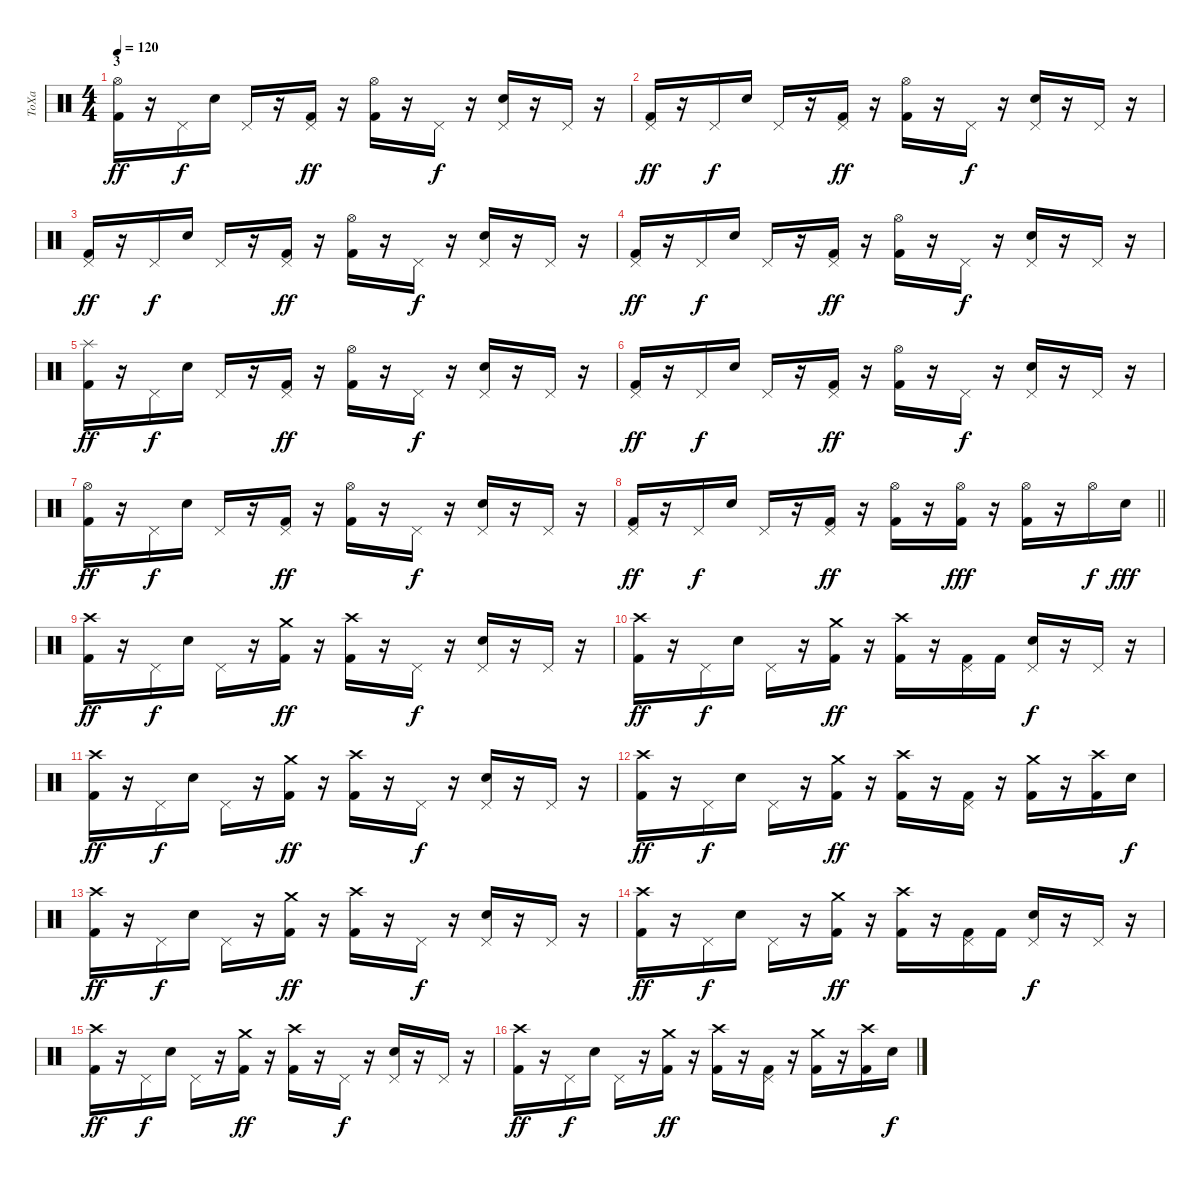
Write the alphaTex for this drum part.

\track ("ТоХа" "ТоХа") {instrument percussion}
\staff {score}
\articulation defaults
\ts (4 4)
\section ("" "3")
\tempo 120
\clef neutral
\ks c
("Hi-Hat (open)" "Kick (hit) 2").16{dy ff} r.16 "Pedal Hi-Hat (hit)".16{dy f} "Electric Snare (hit)".16 "Pedal Hi-Hat (hit)".16 r.16 ("Pedal Hi-Hat (hit)" "Kick (hit) 2").16{dy ff} r.16 ("Hi-Hat (open)" "Kick (hit) 2").16 r.16 "Pedal Hi-Hat (hit)".16{dy f} r.16 ("Pedal Hi-Hat (hit)" "Electric Snare (hit)").16 r.16 "Pedal Hi-Hat (hit)".16 r.16 |
("Pedal Hi-Hat (hit)" "Kick (hit) 2").16{dy ff} r.16 "Pedal Hi-Hat (hit)".16{dy f} "Electric Snare (hit)".16 "Pedal Hi-Hat (hit)".16 r.16 ("Pedal Hi-Hat (hit)" "Kick (hit) 2").16{dy ff} r.16 ("Hi-Hat (open)" "Kick (hit) 2").16 r.16 "Pedal Hi-Hat (hit)".16{dy f} r.16 ("Pedal Hi-Hat (hit)" "Electric Snare (hit)").16 r.16 "Pedal Hi-Hat (hit)".16 r.16 |
("Pedal Hi-Hat (hit)" "Kick (hit) 2").16{dy ff} r.16 "Pedal Hi-Hat (hit)".16{dy f} "Electric Snare (hit)".16 "Pedal Hi-Hat (hit)".16 r.16 ("Pedal Hi-Hat (hit)" "Kick (hit) 2").16{dy ff} r.16 ("Hi-Hat (open)" "Kick (hit) 2").16 r.16 "Pedal Hi-Hat (hit)".16{dy f} r.16 ("Pedal Hi-Hat (hit)" "Electric Snare (hit)").16 r.16 "Pedal Hi-Hat (hit)".16 r.16 |
("Pedal Hi-Hat (hit)" "Kick (hit) 2").16{dy ff} r.16 "Pedal Hi-Hat (hit)".16{dy f} "Electric Snare (hit)".16 "Pedal Hi-Hat (hit)".16 r.16 ("Pedal Hi-Hat (hit)" "Kick (hit) 2").16{dy ff} r.16 ("Hi-Hat (open)" "Kick (hit) 2").16 r.16 "Pedal Hi-Hat (hit)".16{dy f} r.16 ("Pedal Hi-Hat (hit)" "Electric Snare (hit)").16 r.16 "Pedal Hi-Hat (hit)".16 r.16 |
("Splash (hit)" "Kick (hit) 2").16{dy ff} r.16 "Pedal Hi-Hat (hit)".16{dy f} "Electric Snare (hit)".16 "Pedal Hi-Hat (hit)".16 r.16 ("Pedal Hi-Hat (hit)" "Kick (hit) 2").16{dy ff} r.16 ("Hi-Hat (open)" "Kick (hit) 2").16 r.16 "Pedal Hi-Hat (hit)".16{dy f} r.16 ("Pedal Hi-Hat (hit)" "Electric Snare (hit)").16 r.16 "Pedal Hi-Hat (hit)".16 r.16 |
("Pedal Hi-Hat (hit)" "Kick (hit) 2").16{dy ff} r.16 "Pedal Hi-Hat (hit)".16{dy f} "Electric Snare (hit)".16 "Pedal Hi-Hat (hit)".16 r.16 ("Pedal Hi-Hat (hit)" "Kick (hit) 2").16{dy ff} r.16 ("Hi-Hat (open)" "Kick (hit) 2").16 r.16 "Pedal Hi-Hat (hit)".16{dy f} r.16 ("Pedal Hi-Hat (hit)" "Electric Snare (hit)").16 r.16 "Pedal Hi-Hat (hit)".16 r.16 |
("Hi-Hat (open)" "Kick (hit) 2").16{dy ff} r.16 "Pedal Hi-Hat (hit)".16{dy f} "Electric Snare (hit)".16 "Pedal Hi-Hat (hit)".16 r.16 ("Pedal Hi-Hat (hit)" "Kick (hit) 2").16{dy ff} r.16 ("Hi-Hat (open)" "Kick (hit) 2").16 r.16 "Pedal Hi-Hat (hit)".16{dy f} r.16 ("Pedal Hi-Hat (hit)" "Electric Snare (hit)").16 r.16 "Pedal Hi-Hat (hit)".16 r.16 |
\barLineRight lightlight
("Pedal Hi-Hat (hit)" "Kick (hit) 2").16{dy ff} r.16 "Pedal Hi-Hat (hit)".16{dy f} "Electric Snare (hit)".16 "Pedal Hi-Hat (hit)".16 r.16 ("Pedal Hi-Hat (hit)" "Kick (hit) 2").16{dy ff} r.16 ("Hi-Hat (open)" "Kick (hit) 2").16 r.16 ("Hi-Hat (open)" "Kick (hit) 2").16{dy fff} r.16 ("Hi-Hat (open)" "Kick (hit) 2").16 r.16 "Hi-Hat (open)".16{dy f} "Electric Snare (hit)".16{dy fff} |
("Crash high (hit)" "Kick (hit) 2").16{dy ff} r.16 "Pedal Hi-Hat (hit)".16{dy f} "Electric Snare (hit)".16 "Pedal Hi-Hat (hit)".16 r.16 ("Crash medium (hit)" "Kick (hit) 2").16{dy ff} r.16 ("Crash high (hit)" "Kick (hit) 2").16 r.16 "Pedal Hi-Hat (hit)".16{dy f} r.16 ("Pedal Hi-Hat (hit)" "Electric Snare (hit)").16 r.16 "Pedal Hi-Hat (hit)".16 r.16 |
("Crash high (hit)" "Kick (hit) 2").16{dy ff} r.16 "Pedal Hi-Hat (hit)".16{dy f} "Electric Snare (hit)".16 "Pedal Hi-Hat (hit)".16 r.16 ("Crash medium (hit)" "Kick (hit) 2").16{dy ff} r.16 ("Crash high (hit)" "Kick (hit) 2").16 r.16 ("Pedal Hi-Hat (hit)" "Kick (hit) 2").16 "Kick (hit) 2".16 ("Pedal Hi-Hat (hit)" "Electric Snare (hit)").16{dy f} r.16 "Pedal Hi-Hat (hit)".16 r.16 |
("Crash high (hit)" "Kick (hit) 2").16{dy ff} r.16 "Pedal Hi-Hat (hit)".16{dy f} "Electric Snare (hit)".16 "Pedal Hi-Hat (hit)".16 r.16 ("Crash medium (hit)" "Kick (hit) 2").16{dy ff} r.16 ("Crash high (hit)" "Kick (hit) 2").16 r.16 "Pedal Hi-Hat (hit)".16{dy f} r.16 ("Pedal Hi-Hat (hit)" "Electric Snare (hit)").16 r.16 "Pedal Hi-Hat (hit)".16 r.16 |
("Crash high (hit)" "Kick (hit) 2").16{dy ff} r.16 "Pedal Hi-Hat (hit)".16{dy f} "Electric Snare (hit)".16 "Pedal Hi-Hat (hit)".16 r.16 ("Crash medium (hit)" "Kick (hit) 2").16{dy ff} r.16 ("Crash high (hit)" "Kick (hit) 2").16 r.16 ("Pedal Hi-Hat (hit)" "Kick (hit) 2").16 r.16 ("Crash medium (hit)" "Kick (hit) 2").16 r.16 ("Crash high (hit)" "Kick (hit) 2").16 "Electric Snare (hit)".16{dy f} |
("Crash high (hit)" "Kick (hit) 2").16{dy ff} r.16 "Pedal Hi-Hat (hit)".16{dy f} "Electric Snare (hit)".16 "Pedal Hi-Hat (hit)".16 r.16 ("Crash medium (hit)" "Kick (hit) 2").16{dy ff} r.16 ("Crash high (hit)" "Kick (hit) 2").16 r.16 "Pedal Hi-Hat (hit)".16{dy f} r.16 ("Pedal Hi-Hat (hit)" "Electric Snare (hit)").16 r.16 "Pedal Hi-Hat (hit)".16 r.16 |
("Crash high (hit)" "Kick (hit) 2").16{dy ff} r.16 "Pedal Hi-Hat (hit)".16{dy f} "Electric Snare (hit)".16 "Pedal Hi-Hat (hit)".16 r.16 ("Crash medium (hit)" "Kick (hit) 2").16{dy ff} r.16 ("Crash high (hit)" "Kick (hit) 2").16 r.16 ("Pedal Hi-Hat (hit)" "Kick (hit) 2").16 "Kick (hit) 2".16 ("Pedal Hi-Hat (hit)" "Electric Snare (hit)").16{dy f} r.16 "Pedal Hi-Hat (hit)".16 r.16 |
("Crash high (hit)" "Kick (hit) 2").16{dy ff} r.16 "Pedal Hi-Hat (hit)".16{dy f} "Electric Snare (hit)".16 "Pedal Hi-Hat (hit)".16 r.16 ("Crash medium (hit)" "Kick (hit) 2").16{dy ff} r.16 ("Crash high (hit)" "Kick (hit) 2").16 r.16 "Pedal Hi-Hat (hit)".16{dy f} r.16 ("Pedal Hi-Hat (hit)" "Electric Snare (hit)").16 r.16 "Pedal Hi-Hat (hit)".16 r.16 |
("Crash high (hit)" "Kick (hit) 2").16{dy ff} r.16 "Pedal Hi-Hat (hit)".16{dy f} "Electric Snare (hit)".16 "Pedal Hi-Hat (hit)".16 r.16 ("Crash medium (hit)" "Kick (hit) 2").16{dy ff} r.16 ("Crash high (hit)" "Kick (hit) 2").16 r.16 ("Pedal Hi-Hat (hit)" "Kick (hit) 2").16 r.16 ("Crash medium (hit)" "Kick (hit) 2").16 r.16 ("Crash high (hit)" "Kick (hit) 2").16 "Electric Snare (hit)".16{dy f}
